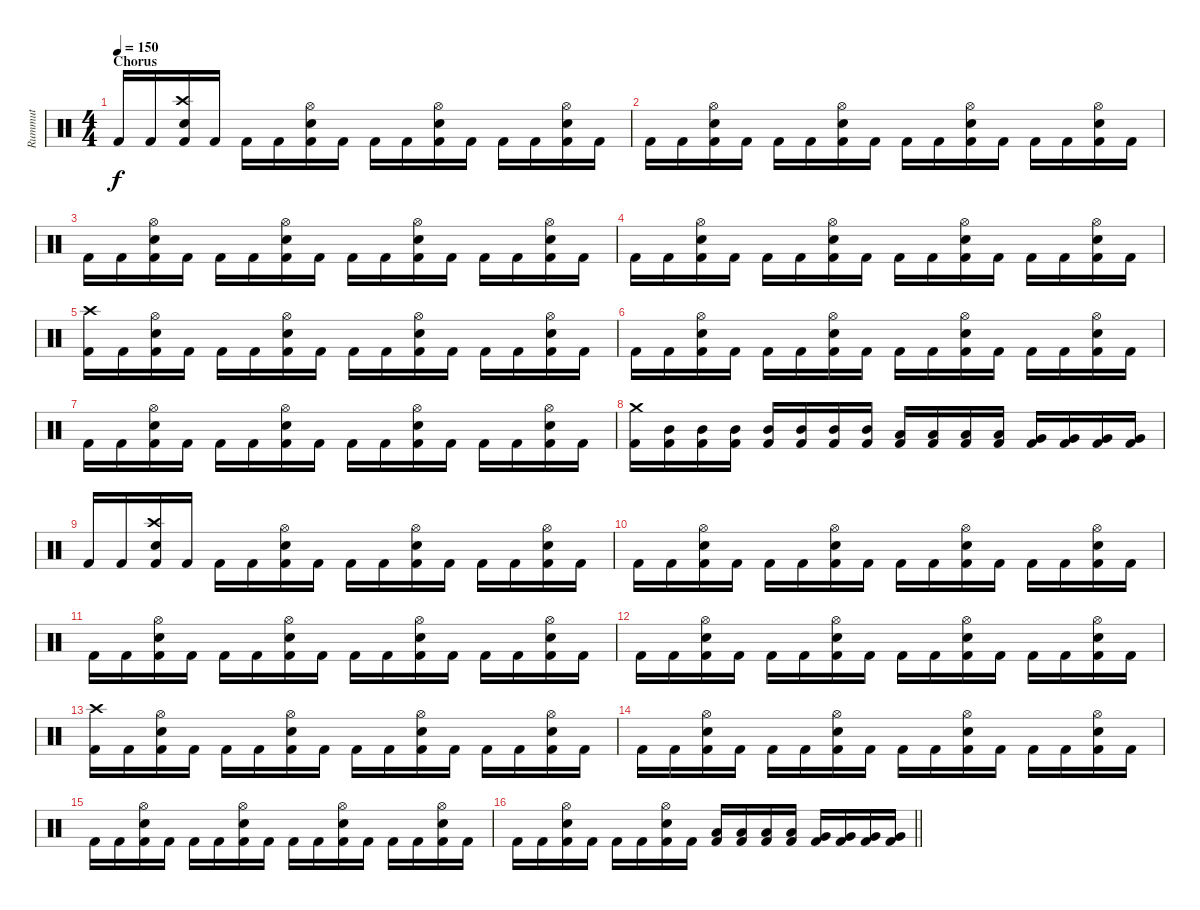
\track ("Rummut" "Rummut") {instrument percussion}
\staff {score}
\articulation defaults
\ts (4 4)
\section ("" "Chorus")
\tempo 150
\clef neutral
\ks c "Kick (hit) 2".16{dy f} "Kick (hit) 2".16
("Crash high (hit)" "Snare (hit) 2" "Kick (hit) 2").16 "Kick (hit) 2".16 "Kick (hit) 2".16 "Kick (hit) 2".16 ("Hi-Hat (open)" "Snare (hit) 2" "Kick (hit) 2").16 "Kick (hit) 2".16 "Kick (hit) 2".16 "Kick (hit) 2".16 ("Hi-Hat (open)" "Snare (hit) 2" "Kick (hit) 2").16 "Kick (hit) 2".16 "Kick (hit) 2".16 "Kick (hit) 2".16 ("Hi-Hat (open)" "Snare (hit) 2" "Kick (hit) 2").16 "Kick (hit) 2".16 |
"Kick (hit) 2".16 "Kick (hit) 2".16 ("Hi-Hat (open)" "Snare (hit) 2" "Kick (hit) 2").16 "Kick (hit) 2".16 "Kick (hit) 2".16 "Kick (hit) 2".16 ("Hi-Hat (open)" "Snare (hit) 2" "Kick (hit) 2").16 "Kick (hit) 2".16 "Kick (hit) 2".16 "Kick (hit) 2".16 ("Hi-Hat (open)" "Snare (hit) 2" "Kick (hit) 2").16 "Kick (hit) 2".16 "Kick (hit) 2".16 "Kick (hit) 2".16 ("Hi-Hat (open)" "Snare (hit) 2" "Kick (hit) 2").16 "Kick (hit) 2".16 |
"Kick (hit) 2".16 "Kick (hit) 2".16 ("Hi-Hat (open)" "Snare (hit) 2" "Kick (hit) 2").16 "Kick (hit) 2".16 "Kick (hit) 2".16 "Kick (hit) 2".16 ("Hi-Hat (open)" "Snare (hit) 2" "Kick (hit) 2").16 "Kick (hit) 2".16 "Kick (hit) 2".16 "Kick (hit) 2".16 ("Hi-Hat (open)" "Snare (hit) 2" "Kick (hit) 2").16 "Kick (hit) 2".16 "Kick (hit) 2".16 "Kick (hit) 2".16 ("Hi-Hat (open)" "Snare (hit) 2" "Kick (hit) 2").16 "Kick (hit) 2".16 |
"Kick (hit) 2".16 "Kick (hit) 2".16 ("Hi-Hat (open)" "Snare (hit) 2" "Kick (hit) 2").16 "Kick (hit) 2".16 "Kick (hit) 2".16 "Kick (hit) 2".16 ("Hi-Hat (open)" "Snare (hit) 2" "Kick (hit) 2").16 "Kick (hit) 2".16 "Kick (hit) 2".16 "Kick (hit) 2".16 ("Hi-Hat (open)" "Snare (hit) 2" "Kick (hit) 2").16 "Kick (hit) 2".16 "Kick (hit) 2".16 "Kick (hit) 2".16 ("Hi-Hat (open)" "Snare (hit) 2" "Kick (hit) 2").16 "Kick (hit) 2".16 |
("Crash high (hit)" "Kick (hit) 2").16 "Kick (hit) 2".16 ("Hi-Hat (open)" "Snare (hit) 2" "Kick (hit) 2").16 "Kick (hit) 2".16 "Kick (hit) 2".16 "Kick (hit) 2".16 ("Hi-Hat (open)" "Snare (hit) 2" "Kick (hit) 2").16 "Kick (hit) 2".16 "Kick (hit) 2".16 "Kick (hit) 2".16 ("Hi-Hat (open)" "Snare (hit) 2" "Kick (hit) 2").16 "Kick (hit) 2".16 "Kick (hit) 2".16 "Kick (hit) 2".16 ("Hi-Hat (open)" "Snare (hit) 2" "Kick (hit) 2").16 "Kick (hit) 2".16 |
"Kick (hit) 2".16 "Kick (hit) 2".16 ("Hi-Hat (open)" "Snare (hit) 2" "Kick (hit) 2").16 "Kick (hit) 2".16 "Kick (hit) 2".16 "Kick (hit) 2".16 ("Hi-Hat (open)" "Snare (hit) 2" "Kick (hit) 2").16 "Kick (hit) 2".16 "Kick (hit) 2".16 "Kick (hit) 2".16 ("Hi-Hat (open)" "Snare (hit) 2" "Kick (hit) 2").16 "Kick (hit) 2".16 "Kick (hit) 2".16 "Kick (hit) 2".16 ("Hi-Hat (open)" "Snare (hit) 2" "Kick (hit) 2").16 "Kick (hit) 2".16 |
"Kick (hit) 2".16 "Kick (hit) 2".16 ("Hi-Hat (open)" "Snare (hit) 2" "Kick (hit) 2").16 "Kick (hit) 2".16 "Kick (hit) 2".16 "Kick (hit) 2".16 ("Hi-Hat (open)" "Snare (hit) 2" "Kick (hit) 2").16 "Kick (hit) 2".16 "Kick (hit) 2".16 "Kick (hit) 2".16 ("Hi-Hat (open)" "Snare (hit) 2" "Kick (hit) 2").16 "Kick (hit) 2".16 "Kick (hit) 2".16 "Kick (hit) 2".16 ("Hi-Hat (open)" "Snare (hit) 2" "Kick (hit) 2").16 "Kick (hit) 2".16 |
("Crash medium (hit)" "Kick (hit) 2").16 ("Mid Tom (hit)" "Kick (hit) 2").16 ("Mid Tom (hit)" "Kick (hit) 2").16 ("Mid Tom (hit)" "Kick (hit) 2").16 ("Mid Tom (hit)" "Kick (hit) 2").16 ("Mid Tom (hit)" "Kick (hit) 2").16 ("Mid Tom (hit)" "Kick (hit) 2").16 ("Mid Tom (hit)" "Kick (hit) 2").16 ("Low Tom (hit)" "Kick (hit) 2").16 ("Low Tom (hit)" "Kick (hit) 2").16 ("Low Tom (hit)" "Kick (hit) 2").16 ("Low Tom (hit)" "Kick (hit) 2").16 ("Very Low Tom (hit)" "Kick (hit) 2").16 ("Very Low Tom (hit)" "Kick (hit) 2").16 ("Very Low Tom (hit)" "Kick (hit) 2").16 ("Very Low Tom (hit)" "Kick (hit) 2").16 |
"Kick (hit) 2".16 "Kick (hit) 2".16 ("Crash high (hit)" "Snare (hit) 2" "Kick (hit) 2").16 "Kick (hit) 2".16 "Kick (hit) 2".16 "Kick (hit) 2".16 ("Hi-Hat (open)" "Snare (hit) 2" "Kick (hit) 2").16 "Kick (hit) 2".16 "Kick (hit) 2".16 "Kick (hit) 2".16 ("Hi-Hat (open)" "Snare (hit) 2" "Kick (hit) 2").16 "Kick (hit) 2".16 "Kick (hit) 2".16 "Kick (hit) 2".16 ("Hi-Hat (open)" "Snare (hit) 2" "Kick (hit) 2").16 "Kick (hit) 2".16 |
"Kick (hit) 2".16 "Kick (hit) 2".16 ("Hi-Hat (open)" "Snare (hit) 2" "Kick (hit) 2").16 "Kick (hit) 2".16 "Kick (hit) 2".16 "Kick (hit) 2".16 ("Hi-Hat (open)" "Snare (hit) 2" "Kick (hit) 2").16 "Kick (hit) 2".16 "Kick (hit) 2".16 "Kick (hit) 2".16 ("Hi-Hat (open)" "Snare (hit) 2" "Kick (hit) 2").16 "Kick (hit) 2".16 "Kick (hit) 2".16 "Kick (hit) 2".16 ("Hi-Hat (open)" "Snare (hit) 2" "Kick (hit) 2").16 "Kick (hit) 2".16 |
"Kick (hit) 2".16 "Kick (hit) 2".16 ("Hi-Hat (open)" "Snare (hit) 2" "Kick (hit) 2").16 "Kick (hit) 2".16 "Kick (hit) 2".16 "Kick (hit) 2".16 ("Hi-Hat (open)" "Snare (hit) 2" "Kick (hit) 2").16 "Kick (hit) 2".16 "Kick (hit) 2".16 "Kick (hit) 2".16 ("Hi-Hat (open)" "Snare (hit) 2" "Kick (hit) 2").16 "Kick (hit) 2".16 "Kick (hit) 2".16 "Kick (hit) 2".16 ("Hi-Hat (open)" "Snare (hit) 2" "Kick (hit) 2").16 "Kick (hit) 2".16 |
"Kick (hit) 2".16 "Kick (hit) 2".16 ("Hi-Hat (open)" "Snare (hit) 2" "Kick (hit) 2").16 "Kick (hit) 2".16 "Kick (hit) 2".16 "Kick (hit) 2".16 ("Hi-Hat (open)" "Snare (hit) 2" "Kick (hit) 2").16 "Kick (hit) 2".16 "Kick (hit) 2".16 "Kick (hit) 2".16 ("Hi-Hat (open)" "Snare (hit) 2" "Kick (hit) 2").16 "Kick (hit) 2".16 "Kick (hit) 2".16 "Kick (hit) 2".16 ("Hi-Hat (open)" "Snare (hit) 2" "Kick (hit) 2").16 "Kick (hit) 2".16 |
("Crash high (hit)" "Kick (hit) 2").16 "Kick (hit) 2".16 ("Hi-Hat (open)" "Snare (hit) 2" "Kick (hit) 2").16 "Kick (hit) 2".16 "Kick (hit) 2".16 "Kick (hit) 2".16 ("Hi-Hat (open)" "Snare (hit) 2" "Kick (hit) 2").16 "Kick (hit) 2".16 "Kick (hit) 2".16 "Kick (hit) 2".16 ("Hi-Hat (open)" "Snare (hit) 2" "Kick (hit) 2").16 "Kick (hit) 2".16 "Kick (hit) 2".16 "Kick (hit) 2".16 ("Hi-Hat (open)" "Snare (hit) 2" "Kick (hit) 2").16 "Kick (hit) 2".16 |
"Kick (hit) 2".16 "Kick (hit) 2".16 ("Hi-Hat (open)" "Snare (hit) 2" "Kick (hit) 2").16 "Kick (hit) 2".16 "Kick (hit) 2".16 "Kick (hit) 2".16 ("Hi-Hat (open)" "Snare (hit) 2" "Kick (hit) 2").16 "Kick (hit) 2".16 "Kick (hit) 2".16 "Kick (hit) 2".16 ("Hi-Hat (open)" "Snare (hit) 2" "Kick (hit) 2").16 "Kick (hit) 2".16 "Kick (hit) 2".16 "Kick (hit) 2".16 ("Hi-Hat (open)" "Snare (hit) 2" "Kick (hit) 2").16 "Kick (hit) 2".16 |
"Kick (hit) 2".16 "Kick (hit) 2".16 ("Hi-Hat (open)" "Snare (hit) 2" "Kick (hit) 2").16 "Kick (hit) 2".16 "Kick (hit) 2".16 "Kick (hit) 2".16 ("Hi-Hat (open)" "Snare (hit) 2" "Kick (hit) 2").16 "Kick (hit) 2".16 "Kick (hit) 2".16 "Kick (hit) 2".16 ("Hi-Hat (open)" "Snare (hit) 2" "Kick (hit) 2").16 "Kick (hit) 2".16 "Kick (hit) 2".16 "Kick (hit) 2".16 ("Hi-Hat (open)" "Snare (hit) 2" "Kick (hit) 2").16 "Kick (hit) 2".16 |
\barLineRight lightlight "Kick (hit) 2".16 "Kick (hit) 2".16
("Hi-Hat (open)" "Snare (hit) 2" "Kick (hit) 2").16 "Kick (hit) 2".16 "Kick (hit) 2".16 "Kick (hit) 2".16 ("Hi-Hat (open)" "Snare (hit) 2" "Kick (hit) 2").16 "Kick (hit) 2".16 ("Low Tom (hit)" "Kick (hit) 2").16 ("Low Tom (hit)" "Kick (hit) 2").16 ("Low Tom (hit)" "Kick (hit) 2").16 ("Low Tom (hit)" "Kick (hit) 2").16 ("Very Low Tom (hit)" "Kick (hit) 2").16 ("Very Low Tom (hit)" "Kick (hit) 2").16 ("Very Low Tom (hit)" "Kick (hit) 2").16 ("Very Low Tom (hit)" "Kick (hit) 2").16
